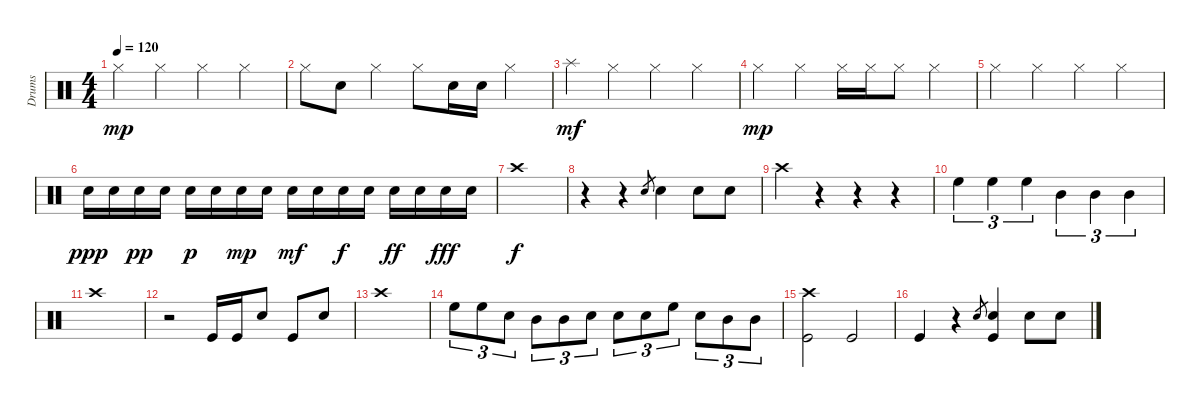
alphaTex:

\track ("Drums" "Drums") {instrument percussion}
\staff {score}
\articulation defaults
\ts (4 4)
\tempo 120
\clef neutral
\ks c "Hi-Hat (closed)".4{dy mp} "Hi-Hat (closed)".4 "Hi-Hat (closed)".4 "Hi-Hat (closed)".4
|
"Hi-Hat (closed)".8 "Snare (hit) 2".8 "Hi-Hat (closed)".4 "Hi-Hat (closed)".8 "Snare (hit) 2".16 "Snare (hit) 2".16 "Hi-Hat (closed)".4 |
"Splash (hit)".4{dy mf} "Hi-Hat (closed)".4 "Hi-Hat (closed)".4 "Hi-Hat (closed)".4 |
"Hi-Hat (closed)".4{dy mp} "Hi-Hat (closed)".4 "Hi-Hat (closed)".16 "Hi-Hat (closed)".16 "Hi-Hat (closed)".8 "Hi-Hat (closed)".4 |
"Hi-Hat (closed)".4 "Hi-Hat (closed)".4 "Hi-Hat (closed)".4 "Hi-Hat (closed)".4 |
"Snare (hit) 2".16{dy ppp} "Snare (hit) 2".16 "Snare (hit) 2".16{dy pp} "Snare (hit) 2".16 "Snare (hit) 2".16{dy p} "Snare (hit) 2".16 "Snare (hit) 2".16{dy mp} "Snare (hit) 2".16 "Snare (hit) 2".16{dy mf} "Snare (hit) 2".16 "Snare (hit) 2".16{dy f} "Snare (hit) 2".16 "Snare (hit) 2".16{dy ff} "Snare (hit) 2".16 "Snare (hit) 2".16{dy fff} "Snare (hit) 2".16 |
"Crash high (hit)".1{dy f} |
r.4 r.4 "Snare (hit) 2".8{gr} "Snare (hit) 2".4 "Snare (hit) 2".8 "Snare (hit) 2".8 |
"Crash high (hit)".4 r.4 r.4 r.4 |
"High Floor Tom (hit)".4{tu (3 2)} "High Floor Tom (hit)".4{tu (3 2)} "High Floor Tom (hit)".4{tu (3 2)} "Mid Tom (hit)".4{tu (3 2)} "Mid Tom (hit)".4{tu (3 2)} "Mid Tom (hit)".4{tu (3 2)} |
"Crash high (hit)".1 |
r.2 "Kick (hit)".16 "Kick (hit)".16 "Snare (hit) 2".8 "Kick (hit)".8 "Snare (hit) 2".8 |
"Crash high (hit)".1 |
"High Floor Tom (hit)".8{tu (3 2)} "High Floor Tom (hit)".8{tu (3 2)} "Snare (hit) 2".8{tu (3 2)} "Mid Tom (hit)".8{tu (3 2)} "Mid Tom (hit)".8{tu (3 2)} "Snare (hit) 2".8{tu (3 2)} "Snare (hit) 2".8{tu (3 2)} "Snare (hit) 2".8{tu (3 2)} "High Floor Tom (hit)".8{tu (3 2)} "Snare (hit) 2".8{tu (3 2)} "Mid Tom (hit)".8{tu (3 2)} "Mid Tom (hit)".8{tu (3 2)} |
("Crash high (hit)" "Kick (hit)").2 "Kick (hit)".2 |
"Kick (hit)".4 r.4 "Snare (hit) 2".8{gr} ("Snare (hit) 2" "Kick (hit)").4 "Snare (hit) 2".8 "Snare (hit) 2".8
